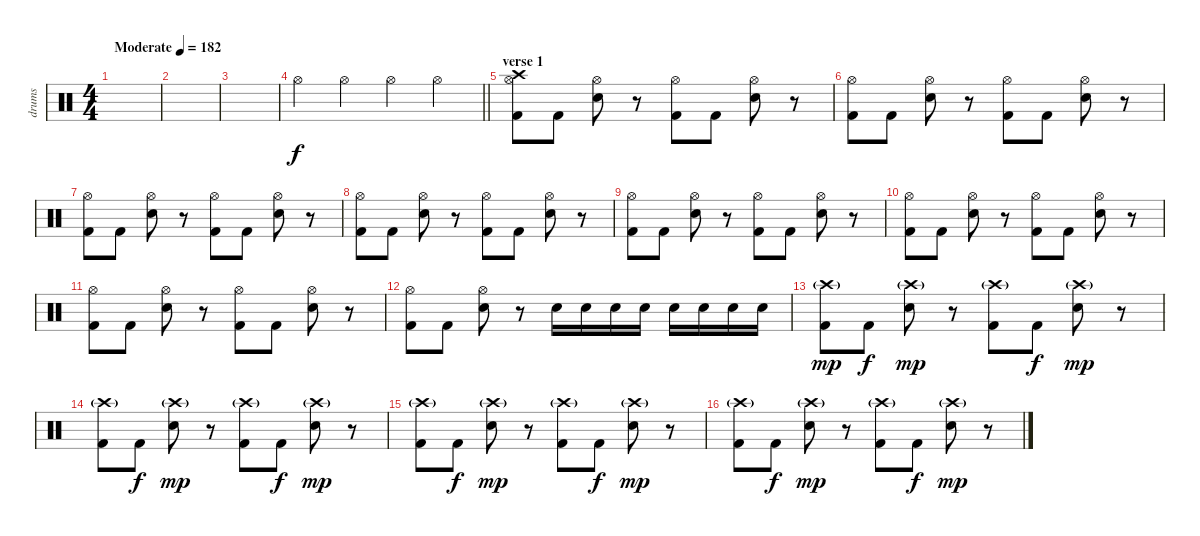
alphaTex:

\track ("drums" "drums") {instrument percussion}
\staff {score}
\articulation defaults
\ts (4 4)
\tempo (182 "Moderate")
\clef neutral
\ks c
|
|
|
\barLineRight lightlight "Hi-Hat (open)".4 "Hi-Hat (open)".4 "Hi-Hat (open)".4 "Hi-Hat (open)".4
|
\section ("" "verse 1")
("Kick (hit) 2" "Hi-Hat (open)" "Crash high (hit)").8 "Kick (hit) 2".8 ("Electric Snare (hit)" "Hi-Hat (open)").8 r.8 ("Kick (hit) 2" "Hi-Hat (open)").8 "Kick (hit) 2".8 ("Electric Snare (hit)" "Hi-Hat (open)").8 r.8 |
("Kick (hit) 2" "Hi-Hat (open)").8 "Kick (hit) 2".8 ("Electric Snare (hit)" "Hi-Hat (open)").8 r.8 ("Kick (hit) 2" "Hi-Hat (open)").8 "Kick (hit) 2".8 ("Electric Snare (hit)" "Hi-Hat (open)").8 r.8 |
("Kick (hit) 2" "Hi-Hat (open)").8 "Kick (hit) 2".8 ("Electric Snare (hit)" "Hi-Hat (open)").8 r.8 ("Kick (hit) 2" "Hi-Hat (open)").8 "Kick (hit) 2".8 ("Electric Snare (hit)" "Hi-Hat (open)").8 r.8 |
("Kick (hit) 2" "Hi-Hat (open)").8 "Kick (hit) 2".8 ("Electric Snare (hit)" "Hi-Hat (open)").8 r.8 ("Kick (hit) 2" "Hi-Hat (open)").8 "Kick (hit) 2".8 ("Electric Snare (hit)" "Hi-Hat (open)").8 r.8 |
("Kick (hit) 2" "Hi-Hat (open)").8 "Kick (hit) 2".8 ("Electric Snare (hit)" "Hi-Hat (open)").8 r.8 ("Kick (hit) 2" "Hi-Hat (open)").8 "Kick (hit) 2".8 ("Electric Snare (hit)" "Hi-Hat (open)").8 r.8 |
("Kick (hit) 2" "Hi-Hat (open)").8 "Kick (hit) 2".8 ("Electric Snare (hit)" "Hi-Hat (open)").8 r.8 ("Kick (hit) 2" "Hi-Hat (open)").8 "Kick (hit) 2".8 ("Electric Snare (hit)" "Hi-Hat (open)").8 r.8 |
("Kick (hit) 2" "Hi-Hat (open)").8 "Kick (hit) 2".8 ("Electric Snare (hit)" "Hi-Hat (open)").8 r.8 ("Kick (hit) 2" "Hi-Hat (open)").8 "Kick (hit) 2".8 ("Electric Snare (hit)" "Hi-Hat (open)").8 r.8 |
("Kick (hit) 2" "Hi-Hat (open)").8 "Kick (hit) 2".8 ("Electric Snare (hit)" "Hi-Hat (open)").8 r.8 "Electric Snare (hit)".16 "Electric Snare (hit)".16 "Electric Snare (hit)".16 "Electric Snare (hit)".16 "Electric Snare (hit)".16 "Electric Snare (hit)".16 "Electric Snare (hit)".16 "Electric Snare (hit)".16 |
("Kick (hit) 2" "Crash high (hit)"{g}).8{dy mp} "Kick (hit) 2".8{dy f} ("Electric Snare (hit)" "Crash high (hit)"{g}).8{dy mp} r.8 ("Kick (hit) 2" "Crash high (hit)"{g}).8 "Kick (hit) 2".8{dy f} ("Electric Snare (hit)" "Crash high (hit)"{g}).8{dy mp} r.8 |
("Kick (hit) 2" "Crash high (hit)"{g}).8 "Kick (hit) 2".8{dy f} ("Electric Snare (hit)" "Crash high (hit)"{g}).8{dy mp} r.8 ("Kick (hit) 2" "Crash high (hit)"{g}).8 "Kick (hit) 2".8{dy f} ("Electric Snare (hit)" "Crash high (hit)"{g}).8{dy mp} r.8 |
("Kick (hit) 2" "Crash high (hit)"{g}).8 "Kick (hit) 2".8{dy f} ("Electric Snare (hit)" "Crash high (hit)"{g}).8{dy mp} r.8 ("Kick (hit) 2" "Crash high (hit)"{g}).8 "Kick (hit) 2".8{dy f} ("Electric Snare (hit)" "Crash high (hit)"{g}).8{dy mp} r.8 |
("Kick (hit) 2" "Crash high (hit)"{g}).8 "Kick (hit) 2".8{dy f} ("Electric Snare (hit)" "Crash high (hit)"{g}).8{dy mp} r.8 ("Kick (hit) 2" "Crash high (hit)"{g}).8 "Kick (hit) 2".8{dy f} ("Electric Snare (hit)" "Crash high (hit)"{g}).8{dy mp} r.8
